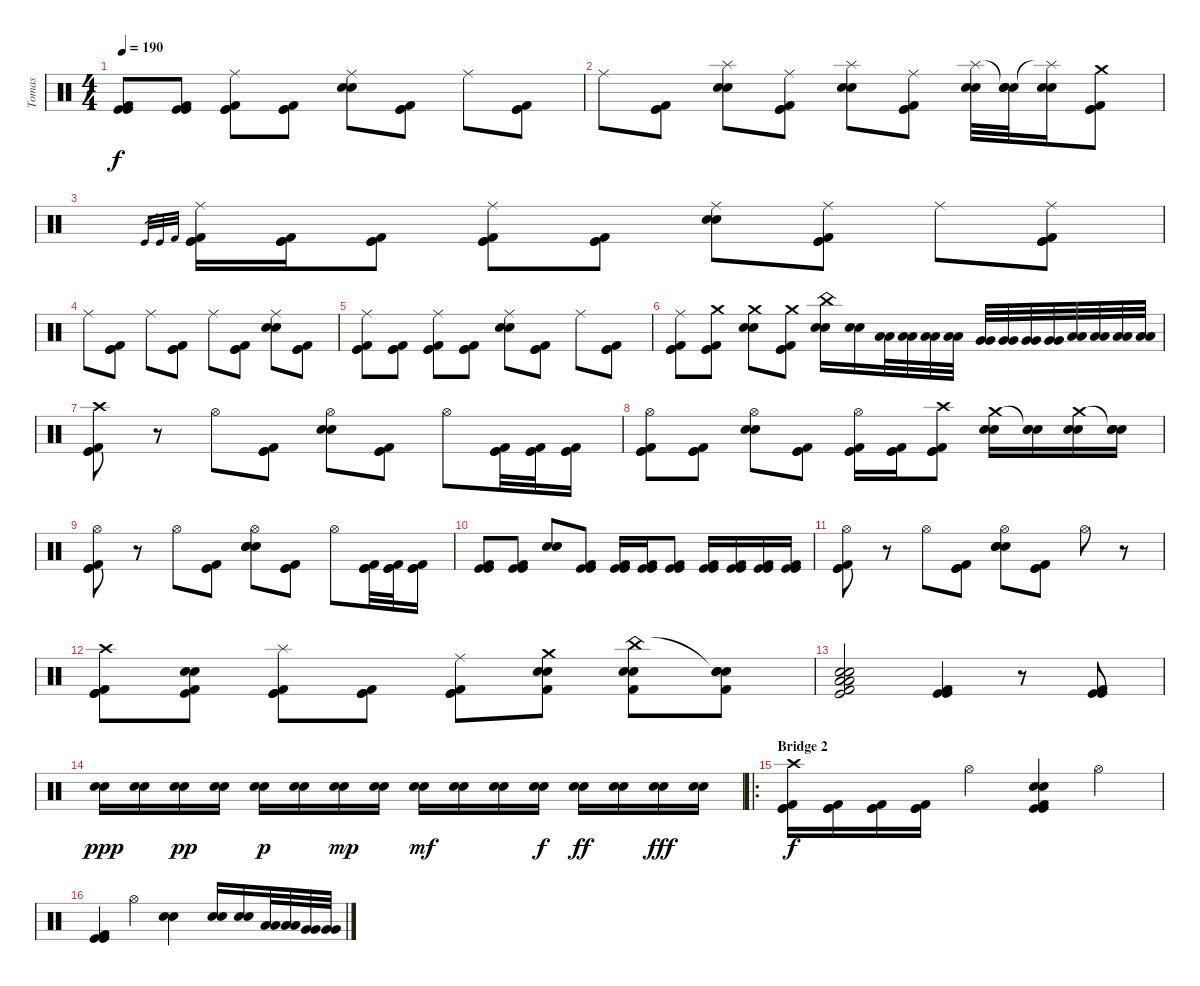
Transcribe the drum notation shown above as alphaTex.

\track ("Tomas" "Tomas") {instrument percussion}
\staff {score}
\articulation defaults
\ts (4 4)
\tempo 190
\clef neutral
\ks c
("Kick (hit)" "Kick (hit)" "Kick (hit) 2").8{dy f} ("Kick (hit)" "Kick (hit)" "Kick (hit) 2").8 ("Ride (middle)" "Kick (hit)" "Kick (hit)" "Kick (hit) 2").8 ("Kick (hit)" "Kick (hit)" "Kick (hit) 2").8 ("Ride (middle)" "Electric Snare (hit)" "Electric Snare (hit)").8 ("Kick (hit)" "Kick (hit)" "Kick (hit) 2").8 "Ride (middle)".8 ("Kick (hit)" "Kick (hit)" "Kick (hit) 2").8 |
"Ride (middle)".8 ("Kick (hit)" "Kick (hit)" "Kick (hit) 2").8 ("Splash (hit)" "Electric Snare (hit)" "Electric Snare (hit)").8 ("Ride (middle)" "Kick (hit)" "Kick (hit)" "Kick (hit) 2").8 ("Splash (hit)" "Electric Snare (hit)" "Electric Snare (hit)").8 ("Ride (middle)" "Kick (hit)" "Kick (hit)" "Kick (hit) 2").8 ("Splash (hit)" "Electric Snare (hit)" "Electric Snare (hit)").32 ("Snare (hit)"{t} "Electric Snare (hit)" "Electric Snare (hit)").32 ("Splash (hit)"{t} "Electric Snare (hit)" "Electric Snare (hit)").16 ("Crash medium (hit)" "Kick (hit)" "Kick (hit)" "Kick (hit) 2").8 |
"Kick (hit)".32{gr} "Kick (hit)".32{gr} "Kick (hit) 2".32{gr} ("Ride (middle)" "Kick (hit)" "Kick (hit)" "Kick (hit) 2").16 ("Kick (hit)" "Kick (hit)" "Kick (hit) 2").16 ("Kick (hit)" "Kick (hit)" "Kick (hit) 2").8 ("Ride (middle)" "Kick (hit)" "Kick (hit)" "Kick (hit) 2").8 ("Kick (hit)" "Kick (hit)" "Kick (hit) 2").8 ("Ride (middle)" "Electric Snare (hit)" "Electric Snare (hit)").8 ("Ride (middle)" "Kick (hit)" "Kick (hit)" "Kick (hit) 2").8 "Ride (middle)".8 ("Ride (middle)" "Kick (hit)" "Kick (hit)" "Kick (hit) 2").8 |
"Ride (middle)".8 ("Kick (hit)" "Kick (hit)" "Kick (hit) 2").8 "Ride (middle)".8 ("Kick (hit)" "Kick (hit)" "Kick (hit) 2").8 "Ride (middle)".8 ("Kick (hit)" "Kick (hit)" "Kick (hit) 2").8 ("Ride (middle)" "Electric Snare (hit)" "Electric Snare (hit)").8 ("Kick (hit)" "Kick (hit)" "Kick (hit) 2").8 |
("Ride (middle)" "Kick (hit)" "Kick (hit)" "Kick (hit) 2").8 ("Kick (hit)" "Kick (hit)" "Kick (hit) 2").8 ("Ride (middle)" "Kick (hit)" "Kick (hit)" "Kick (hit) 2").8 ("Kick (hit)" "Kick (hit)" "Kick (hit) 2").8 ("Ride (middle)" "Electric Snare (hit)" "Electric Snare (hit)").8 ("Kick (hit)" "Kick (hit)" "Kick (hit) 2").8 "Ride (middle)".8 ("Kick (hit)" "Kick (hit)" "Kick (hit) 2").8 |
("Ride (middle)" "Kick (hit)" "Kick (hit)" "Kick (hit) 2").8 ("Crash medium (hit)" "Kick (hit)" "Kick (hit)" "Kick (hit) 2").8 ("Crash medium (hit)" "Electric Snare (hit)" "Electric Snare (hit)").8 ("Crash medium (hit)" "Kick (hit)" "Kick (hit)" "Kick (hit) 2").8 ("China (hit)" "Electric Snare (hit)" "Electric Snare (hit)").16 ("Electric Snare (hit)" "Electric Snare (hit)").16 ("Low Tom (hit)" "Low Tom (hit)").32 ("Low Tom (hit)" "Low Tom (hit)").32 ("Low Tom (hit)" "Low Tom (hit)").32 ("Low Tom (hit)" "Low Tom (hit)").32 ("Very Low Tom (hit)" "Very Low Tom (hit)").32 ("Very Low Tom (hit)" "Very Low Tom (hit)").32 ("Very Low Tom (hit)" "Very Low Tom (hit)").32 ("Very Low Tom (hit)" "Very Low Tom (hit)").32 ("Low Floor Tom (hit)" "Low Floor Tom (hit)").32 ("Low Floor Tom (hit)" "Low Floor Tom (hit)").32 ("Low Floor Tom (hit)" "Low Floor Tom (hit)").32 ("Low Floor Tom (hit)" "Low Floor Tom (hit)").32 |
("Crash high (hit)" "Kick (hit)" "Kick (hit)" "Kick (hit) 2").8 r.8 "Hi-Hat (open)".8 ("Kick (hit)" "Kick (hit)" "Kick (hit) 2").8 ("Hi-Hat (open)" "Electric Snare (hit)" "Electric Snare (hit)").8 ("Kick (hit)" "Kick (hit)" "Kick (hit) 2").8 "Hi-Hat (open)".8 ("Kick (hit)" "Kick (hit)" "Kick (hit) 2").32 ("Kick (hit)" "Kick (hit)" "Kick (hit) 2").32 ("Kick (hit)" "Kick (hit)" "Kick (hit) 2").16 |
("Hi-Hat (open)" "Kick (hit)" "Kick (hit)" "Kick (hit) 2").8 ("Kick (hit)" "Kick (hit)" "Kick (hit) 2").8 ("Hi-Hat (open)" "Electric Snare (hit)" "Electric Snare (hit)").8 ("Kick (hit)" "Kick (hit)" "Kick (hit) 2").8 ("Hi-Hat (open)" "Kick (hit)" "Kick (hit)" "Kick (hit) 2").16 ("Kick (hit)" "Kick (hit)" "Kick (hit) 2").16 ("Crash high (hit)" "Kick (hit)" "Kick (hit)" "Kick (hit) 2").8 ("Crash medium (hit)" "Electric Snare (hit)" "Electric Snare (hit)").16 ("Snare (hit)"{t} "Electric Snare (hit)" "Electric Snare (hit)").16 ("Crash medium (hit)" "Electric Snare (hit)" "Electric Snare (hit)").16 ("Snare (hit)"{t} "Electric Snare (hit)" "Electric Snare (hit)").16 |
("Hi-Hat (open)" "Kick (hit)" "Kick (hit)" "Kick (hit) 2").8 r.8 "Hi-Hat (open)".8 ("Kick (hit)" "Kick (hit)" "Kick (hit) 2").8 ("Hi-Hat (open)" "Electric Snare (hit)" "Electric Snare (hit)" "Electric Snare (hit)").8 ("Kick (hit)" "Kick (hit)" "Kick (hit) 2").8 "Hi-Hat (open)".8 ("Kick (hit)" "Kick (hit)" "Kick (hit) 2").32 ("Kick (hit)" "Kick (hit)" "Kick (hit) 2").32 ("Kick (hit)" "Kick (hit)" "Kick (hit) 2").16 |
("Kick (hit)" "Kick (hit)" "Kick (hit) 2").8 ("Kick (hit)" "Kick (hit)" "Kick (hit) 2").8 ("Electric Snare (hit)" "Electric Snare (hit)").8 ("Kick (hit)" "Kick (hit)" "Kick (hit) 2").8 ("Kick (hit)" "Kick (hit)" "Kick (hit) 2").16 ("Kick (hit)" "Kick (hit)" "Kick (hit) 2").16 ("Kick (hit)" "Kick (hit)" "Kick (hit) 2").8 ("Kick (hit)" "Kick (hit)" "Kick (hit) 2").16 ("Kick (hit)" "Kick (hit)" "Kick (hit) 2").16 ("Kick (hit)" "Kick (hit)" "Kick (hit) 2").16 ("Kick (hit)" "Kick (hit)" "Kick (hit) 2").16 |
("Hi-Hat (open)" "Kick (hit)" "Kick (hit)" "Kick (hit) 2").8 r.8 "Hi-Hat (open)".8 ("Kick (hit)" "Kick (hit)" "Kick (hit) 2").8 ("Hi-Hat (open)" "Electric Snare (hit)" "Electric Snare (hit)" "Electric Snare (hit)").8 ("Kick (hit)" "Kick (hit)" "Kick (hit) 2").8 "Hi-Hat (open)".8 r.8 |
("Crash high (hit)" "Kick (hit)" "Kick (hit)" "Kick (hit) 2").8 ("Kick (hit)" "Electric Snare (hit)" "Electric Snare (hit)" "Kick (hit) 2").8 ("Splash (hit)" "Kick (hit)" "Kick (hit)" "Kick (hit) 2").8 ("Kick (hit)" "Kick (hit)" "Kick (hit) 2").8 ("Ride (middle)" "Kick (hit)" "Kick (hit)" "Kick (hit) 2").8 ("Crash medium (hit)" "Electric Snare (hit)" "Electric Snare (hit)" "Kick (hit) 2").8 ("China (hit)" "Electric Snare (hit)" "Electric Snare (hit)" "Kick (hit) 2").8 ("Snare (hit)"{t} "Electric Snare (hit)" "Electric Snare (hit)" "Kick (hit) 2").8 |
("Kick (hit)" "Kick (hit) 2" "Low Floor Tom (hit)" "Electric Snare (hit)" "Electric Snare (hit)" "Low Floor Tom (hit)").2 ("Kick (hit)" "Kick (hit)" "Kick (hit) 2").4 r.8 ("Kick (hit)" "Kick (hit)" "Kick (hit) 2").8 |
("Electric Snare (hit)" "Electric Snare (hit)").16{dy ppp} ("Electric Snare (hit)" "Electric Snare (hit)").16 ("Electric Snare (hit)" "Electric Snare (hit)").16{dy pp} ("Electric Snare (hit)" "Electric Snare (hit)").16 ("Electric Snare (hit)" "Electric Snare (hit)").16{dy p} ("Electric Snare (hit)" "Electric Snare (hit)").16 ("Electric Snare (hit)" "Electric Snare (hit)").16{dy mp} ("Electric Snare (hit)" "Electric Snare (hit)").16 ("Electric Snare (hit)" "Electric Snare (hit)").16{dy mf} ("Electric Snare (hit)" "Electric Snare (hit)").16 ("Electric Snare (hit)" "Electric Snare (hit)").16 ("Electric Snare (hit)" "Electric Snare (hit)").16{dy f} ("Electric Snare (hit)" "Electric Snare (hit)").16{dy ff} ("Electric Snare (hit)" "Electric Snare (hit)").16 ("Electric Snare (hit)" "Electric Snare (hit)").16{dy fff} ("Electric Snare (hit)" "Electric Snare (hit)").16 |
\ro
\section ("" "Bridge 2")
("Crash high (hit)" "Kick (hit)" "Kick (hit)" "Kick (hit) 2").16{dy f} ("Kick (hit)" "Kick (hit)" "Kick (hit) 2").16 ("Kick (hit)" "Kick (hit)" "Kick (hit) 2").16 ("Kick (hit)" "Kick (hit)" "Kick (hit) 2").16 "Hi-Hat (open)".4 ("Kick (hit)" "Kick (hit)" "Kick (hit) 2" "Electric Snare (hit)" "Electric Snare (hit)").4 "Hi-Hat (open)".4 |
("Kick (hit)" "Kick (hit)" "Kick (hit) 2").4 "Hi-Hat (open)".4 ("Electric Snare (hit)" "Electric Snare (hit)").4 ("Electric Snare (hit)" "Electric Snare (hit)").16 ("Electric Snare (hit)" "Electric Snare (hit)").16 ("Low Tom (hit)" "Low Tom (hit)").32 ("Low Tom (hit)" "Low Tom (hit)").32 ("Very Low Tom (hit)" "Very Low Tom (hit)").32 ("Very Low Tom (hit)" "Very Low Tom (hit)").32
